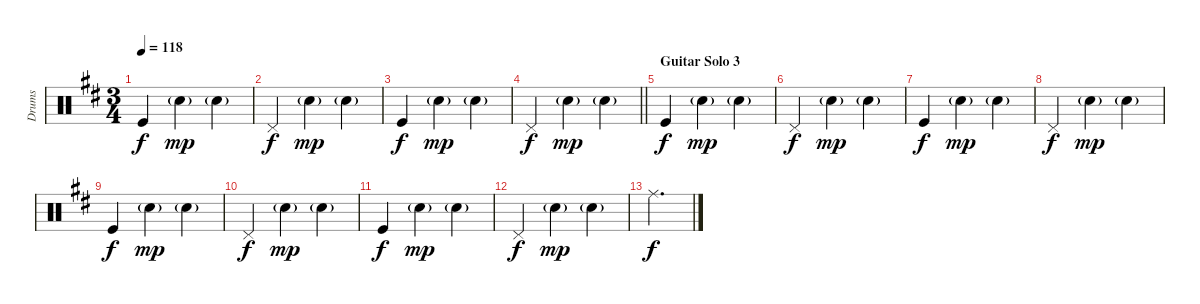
\track ("Drums" "Drums") {instrument percussion}
\staff {score}
\articulation defaults
\ts (3 4)
\tempo 118
\clef neutral
\ks d "Kick (hit)".4{dy f} "Snare (hit) 2"{g}.4{dy mp} "Snare (hit) 2"{g}.4
|
"Pedal Hi-Hat (hit)".4{dy f} "Snare (hit) 2"{g}.4{dy mp} "Snare (hit) 2"{g}.4 |
"Kick (hit)".4{dy f} "Snare (hit) 2"{g}.4{dy mp} "Snare (hit) 2"{g}.4 |
\barLineRight lightlight "Pedal Hi-Hat (hit)".4{dy f} "Snare (hit) 2"{g}.4{dy mp} "Snare (hit) 2"{g}.4
|
\section ("" "Guitar Solo 3")
"Kick (hit)".4{dy f} "Snare (hit) 2"{g}.4{dy mp} "Snare (hit) 2"{g}.4 |
"Pedal Hi-Hat (hit)".4{dy f} "Snare (hit) 2"{g}.4{dy mp} "Snare (hit) 2"{g}.4 |
"Kick (hit)".4{dy f} "Snare (hit) 2"{g}.4{dy mp} "Snare (hit) 2"{g}.4 |
"Pedal Hi-Hat (hit)".4{dy f} "Snare (hit) 2"{g}.4{dy mp} "Snare (hit) 2"{g}.4 |
"Kick (hit)".4{dy f} "Snare (hit) 2"{g}.4{dy mp} "Snare (hit) 2"{g}.4 |
"Pedal Hi-Hat (hit)".4{dy f} "Snare (hit) 2"{g}.4{dy mp} "Snare (hit) 2"{g}.4 |
"Kick (hit)".4{dy f} "Snare (hit) 2"{g}.4{dy mp} "Snare (hit) 2"{g}.4 |
"Pedal Hi-Hat (hit)".4{dy f} "Snare (hit) 2"{g}.4{dy mp} "Snare (hit) 2"{g}.4 |
"Ride (middle)".4{d dy f}
